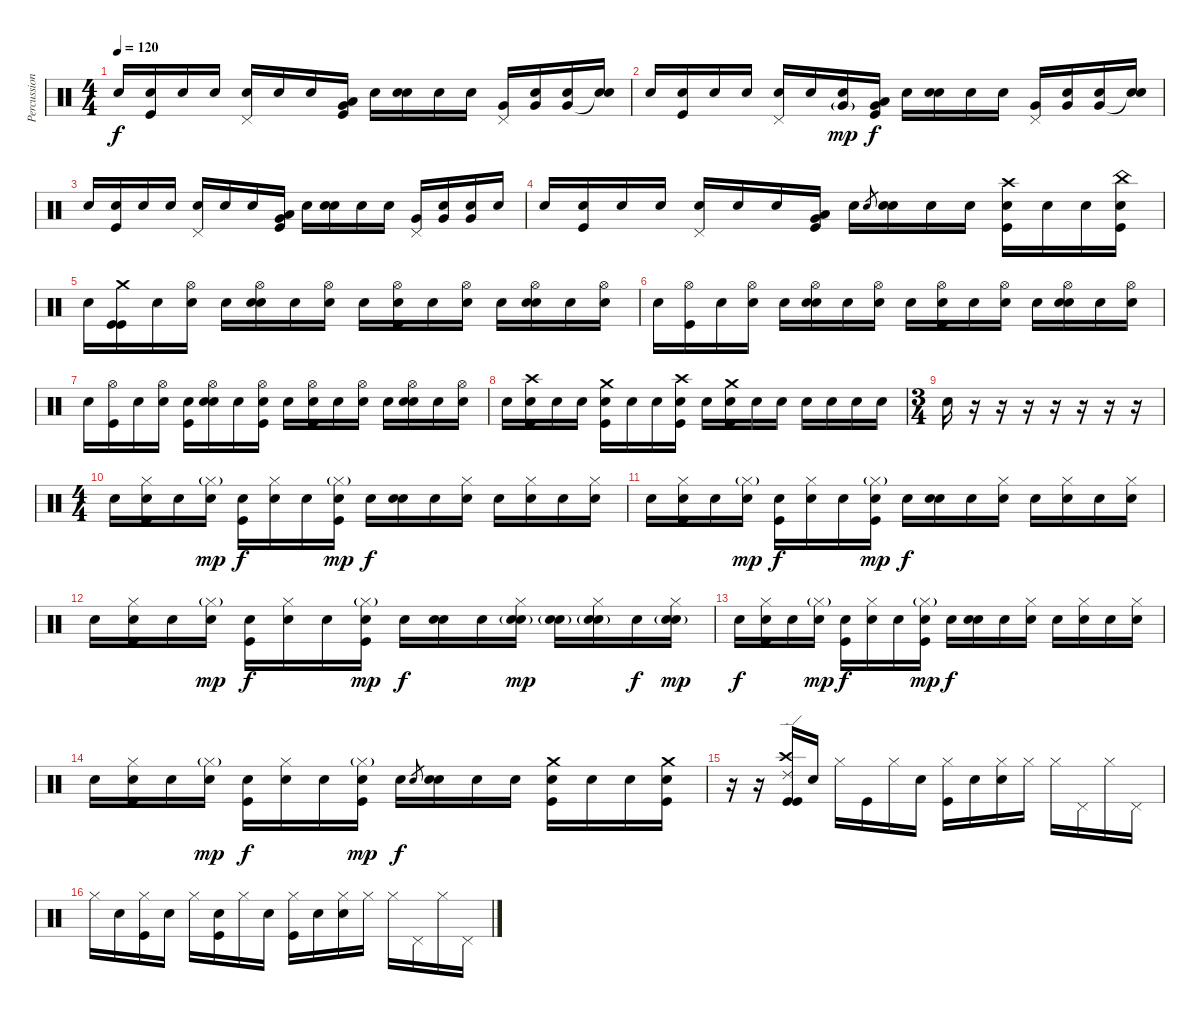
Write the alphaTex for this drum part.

\track ("Percussion" "Percussion") {instrument percussion}
\staff {score}
\articulation defaults
\ts (4 4)
\tempo 120
\clef neutral
\ks c "Snare (hit)"{x}.16{dy f}
("Snare (hit)"{x} "Kick (hit)").16 "Snare (hit)"{x}.16 "Snare (hit)"{x}.16 ("Pedal Hi-Hat (hit)" "Snare (hit) 2").16 "Snare (hit)"{x}.16 "Snare (hit)"{x}.16 ("Low Tom (hit)" "Very Low Tom (hit)" "Kick (hit)").16 "Snare (hit)"{x}.16 ("Snare (hit)"{x} "Snare (hit) 2").16 "Snare (hit)"{x}.16 "Snare (hit)"{x}.16 ("Pedal Hi-Hat (hit)" "Very Low Tom (hit)").16 ("Snare (hit)"{x} "Very Low Tom (hit)").16 ("Snare (hit)"{x} "Very Low Tom (hit)").16 ("Snare (hit)"{x} "Snare (hit)"{t}).16 |
"Snare (hit)"{x}.16 ("Snare (hit)"{x} "Kick (hit)").16 "Snare (hit)"{x}.16 "Snare (hit)"{x}.16 ("Pedal Hi-Hat (hit)" "Snare (hit) 2").16 "Snare (hit)"{x}.16 ("Snare (hit)"{x} "Very Low Tom (hit)"{g}).16{dy mp} ("Low Tom (hit)" "Very Low Tom (hit)" "Kick (hit)").16{dy f} "Snare (hit)"{x}.16 ("Snare (hit)"{x} "Snare (hit) 2").16 "Snare (hit)"{x}.16 "Snare (hit)"{x}.16 ("Pedal Hi-Hat (hit)" "Very Low Tom (hit)").16 ("Snare (hit)"{x} "Very Low Tom (hit)").16 ("Snare (hit)"{x} "Very Low Tom (hit)").16 ("Snare (hit)"{x} "Snare (hit)"{t}).16 |
"Snare (hit)"{x}.16 ("Snare (hit)"{x} "Kick (hit)").16 "Snare (hit)"{x}.16 "Snare (hit)"{x}.16 ("Pedal Hi-Hat (hit)" "Snare (hit) 2").16 "Snare (hit)"{x}.16 "Snare (hit)"{x}.16 ("Low Tom (hit)" "Very Low Tom (hit)" "Kick (hit)").16 "Snare (hit)"{x}.16 ("Snare (hit)"{x} "Snare (hit) 2").16 "Snare (hit)"{x}.16 "Snare (hit)"{x}.16 ("Pedal Hi-Hat (hit)" "Very Low Tom (hit)").16 ("Snare (hit)"{x} "Very Low Tom (hit)").16 ("Snare (hit)"{x} "Very Low Tom (hit)").16 "Snare (hit)"{x}.16 |
"Snare (hit)"{x}.16 ("Snare (hit)"{x} "Kick (hit)").16 "Snare (hit)"{x}.16 "Snare (hit)"{x}.16 ("Pedal Hi-Hat (hit)" "Snare (hit) 2").16 "Snare (hit)"{x}.16 "Snare (hit)"{x}.16 ("Low Tom (hit)" "Very Low Tom (hit)" "Kick (hit)").16 "Snare (hit)"{x}.16 "Snare (hit) 2".8{gr} ("Snare (hit) 2" "Snare (hit) 2").16 "Snare (hit)"{x}.16 "Snare (hit)"{x}.16 ("Crash high (hit)" "Snare (hit) 2" "Kick (hit)").16 "Snare (hit)"{x}.16 "Snare (hit)"{x}.16 ("China (hit)" "Snare (hit) 2" "Kick (hit)").16 |
"Snare (hit)"{x}.16 ("Crash medium (hit)" "Kick (hit)" "Kick (hit)").16 "Snare (hit)"{x}.16 ("Snare (hit)"{x} "Hi-Hat (open)").16 "Snare (hit)"{x}.16 ("Snare (hit)"{x} "Hi-Hat (open)" "Snare (hit) 2").16 "Snare (hit)"{x}.16 ("Snare (hit)"{x} "Hi-Hat (open)").16 "Snare (hit)"{x}.16 ("Snare (hit)"{x} "Hi-Hat (open)" "Kick (hit)").16 "Snare (hit)"{x}.16 ("Snare (hit)"{x} "Hi-Hat (open)").16 "Snare (hit)"{x}.16 ("Snare (hit)"{x} "Hi-Hat (open)" "Snare (hit) 2").16 "Snare (hit)"{x}.16 ("Snare (hit)"{x} "Hi-Hat (open)").16 |
"Snare (hit)"{x}.16 ("Hi-Hat (open)" "Kick (hit)").16 "Snare (hit)"{x}.16 ("Snare (hit)"{x} "Hi-Hat (open)").16 "Snare (hit)"{x}.16 ("Snare (hit)"{x} "Hi-Hat (open)" "Snare (hit) 2").16 "Snare (hit)"{x}.16 ("Snare (hit)"{x} "Hi-Hat (open)").16 "Snare (hit)"{x}.16 ("Snare (hit)"{x} "Hi-Hat (open)" "Kick (hit)").16 "Snare (hit)"{x}.16 ("Snare (hit)"{x} "Hi-Hat (open)").16 "Snare (hit)"{x}.16 ("Snare (hit)"{x} "Hi-Hat (open)" "Snare (hit) 2").16 "Snare (hit)"{x}.16 ("Snare (hit)"{x} "Hi-Hat (open)").16 |
"Snare (hit)"{x}.16 ("Hi-Hat (open)" "Kick (hit)").16 "Snare (hit)"{x}.16 ("Snare (hit)"{x} "Hi-Hat (open)").16 ("Snare (hit)"{x} "Kick (hit)").16 ("Snare (hit)"{x} "Hi-Hat (open)" "Snare (hit) 2").16 "Snare (hit)"{x}.16 ("Snare (hit)"{x} "Hi-Hat (open)" "Kick (hit)").16 "Snare (hit)"{x}.16 ("Snare (hit)"{x} "Hi-Hat (open)" "Kick (hit)").16 "Snare (hit)"{x}.16 ("Snare (hit)"{x} "Hi-Hat (open)").16 "Snare (hit)"{x}.16 ("Snare (hit)"{x} "Hi-Hat (open)" "Snare (hit) 2").16 "Snare (hit)"{x}.16 ("Snare (hit)"{x} "Hi-Hat (open)").16 |
"Snare (hit)"{x}.16 ("Snare (hit)"{x} "Crash high (hit)" "Kick (hit)").16 "Snare (hit)"{x}.16 "Snare (hit)"{x}.16 ("Snare (hit)"{x} "Crash medium (hit)" "Kick (hit)").16 "Snare (hit)"{x}.16 "Snare (hit)"{x}.16 ("Snare (hit)"{x} "Crash high (hit)" "Kick (hit)").16 "Snare (hit)"{x}.16 ("Snare (hit)"{x} "Crash medium (hit)" "Kick (hit)").16 "Snare (hit)"{x}.16 "Snare (hit)"{x}.16 "Snare (hit)"{x}.16 "Snare (hit)"{x}.16 "Snare (hit)"{x}.16 "Snare (hit)"{x}.16 |
\ts (3 4)
"Snare (hit)"{x}.16 r.16 r.16 r.16 r.16 r.16 r.16 r.16 |
\ts (4 4)
"Snare (hit)"{x}.16 ("Snare (hit)"{x} "Hi-Hat (closed)" "Kick (hit)").16 "Snare (hit)"{x}.16 ("Snare (hit)"{x} "Hi-Hat (closed)"{g}).16{dy mp} ("Snare (hit)"{x} "Kick (hit)").16{dy f} ("Snare (hit)"{x} "Hi-Hat (closed)").16 "Snare (hit)"{x}.16 ("Snare (hit)"{x} "Hi-Hat (closed)"{g} "Kick (hit)").16{dy mp} "Snare (hit)"{x}.16{dy f} ("Snare (hit)"{x} "Snare (hit) 2").16 "Snare (hit)"{x}.16 ("Snare (hit)"{x} "Hi-Hat (closed)").16 "Snare (hit)"{x}.16 ("Snare (hit)"{x} "Hi-Hat (closed)").16 "Snare (hit)"{x}.16 ("Snare (hit)"{x} "Hi-Hat (closed)").16 |
"Snare (hit)"{x}.16 ("Snare (hit)"{x} "Hi-Hat (closed)" "Kick (hit)").16 "Snare (hit)"{x}.16 ("Snare (hit)"{x} "Hi-Hat (closed)"{g}).16{dy mp} ("Snare (hit)"{x} "Kick (hit)").16{dy f} ("Snare (hit)"{x} "Hi-Hat (closed)").16 "Snare (hit)"{x}.16 ("Snare (hit)"{x} "Hi-Hat (closed)"{g} "Kick (hit)").16{dy mp} "Snare (hit)"{x}.16{dy f} ("Snare (hit)"{x} "Snare (hit) 2").16 "Snare (hit)"{x}.16 ("Snare (hit)"{x} "Hi-Hat (closed)").16 "Snare (hit)"{x}.16 ("Snare (hit)"{x} "Hi-Hat (closed)").16 "Snare (hit)"{x}.16 ("Snare (hit)"{x} "Hi-Hat (closed)").16 |
"Snare (hit)"{x}.16 ("Snare (hit)"{x} "Hi-Hat (closed)" "Kick (hit)").16 "Snare (hit)"{x}.16 ("Snare (hit)"{x} "Hi-Hat (closed)"{g}).16{dy mp} ("Snare (hit)"{x} "Kick (hit)").16{dy f} ("Snare (hit)"{x} "Hi-Hat (closed)").16 "Snare (hit)"{x}.16 ("Snare (hit)"{x} "Hi-Hat (closed)"{g} "Kick (hit)").16{dy mp} "Snare (hit)"{x}.16{dy f} ("Snare (hit)"{x} "Snare (hit) 2").16 "Snare (hit)"{x}.16 ("Snare (hit)"{x} "Hi-Hat (closed)" "Snare (hit) 2"{g}).16{dy mp} ("Snare (hit)"{x} "Snare (hit) 2"{g}).16 ("Snare (hit)"{x} "Hi-Hat (closed)" "Snare (hit) 2"{g}).16 "Snare (hit)"{x}.16{dy f} ("Snare (hit)"{x} "Hi-Hat (closed)" "Snare (hit) 2"{g}).16{dy mp} |
"Snare (hit)"{x}.16{dy f} ("Snare (hit)"{x} "Hi-Hat (closed)" "Kick (hit)").16 "Snare (hit)"{x}.16 ("Snare (hit)"{x} "Hi-Hat (closed)"{g}).16{dy mp} ("Snare (hit)"{x} "Kick (hit)").16{dy f} ("Snare (hit)"{x} "Hi-Hat (closed)").16 "Snare (hit)"{x}.16 ("Snare (hit)"{x} "Hi-Hat (closed)"{g} "Kick (hit)").16{dy mp} "Snare (hit)"{x}.16{dy f} ("Snare (hit)"{x} "Snare (hit) 2").16 "Snare (hit)"{x}.16 ("Snare (hit)"{x} "Hi-Hat (closed)").16 "Snare (hit)"{x}.16 ("Snare (hit)"{x} "Hi-Hat (closed)").16 "Snare (hit)"{x}.16 ("Snare (hit)"{x} "Hi-Hat (closed)").16 |
"Snare (hit)"{x}.16 ("Snare (hit)"{x} "Hi-Hat (closed)" "Kick (hit)").16 "Snare (hit)"{x}.16 ("Snare (hit)"{x} "Hi-Hat (closed)"{g}).16{dy mp} ("Snare (hit)"{x} "Kick (hit)").16{dy f} ("Snare (hit)"{x} "Hi-Hat (closed)").16 "Snare (hit)"{x}.16 ("Snare (hit)"{x} "Hi-Hat (closed)"{g} "Kick (hit)").16{dy mp} "Snare (hit)"{x}.16{dy f} "Snare (hit) 2".8{gr} ("Snare (hit)"{x} "Snare (hit) 2").16 "Snare (hit)"{x}.16 "Snare (hit)"{x}.16 ("Snare (hit)"{x} "Crash medium (hit)" "Kick (hit)").16 "Snare (hit)"{x}.16 "Snare (hit)"{x}.16 ("Snare (hit)"{x} "Crash medium (hit)" "Kick (hit)").16 |
r.16 r.16 ("Ride (edge) 2" "Crash high (hit)" "Kick (hit)" "Kick (hit)").16 "Snare (hit)"{x}.16 "Hi-Hat (closed)".16 "Kick (hit)".16 "Hi-Hat (closed)".16 "Snare (hit)"{x}.16 ("Hi-Hat (closed)" "Kick (hit)").16 "Snare (hit)"{x}.16 ("Hi-Hat (closed)" "Snare (hit) 2").16 "Hi-Hat (closed)"{x}.16 "Hi-Hat (closed)".16 "Pedal Hi-Hat (hit)"{x}.16 "Hi-Hat (closed)".16 "Pedal Hi-Hat (hit)"{x}.16 |
"Hi-Hat (closed)".16 "Snare (hit)"{x}.16 ("Hi-Hat (closed)" "Kick (hit)").16 "Snare (hit)"{x}.16 "Hi-Hat (closed)".16 ("Snare (hit)"{x} "Kick (hit)").16 "Hi-Hat (closed)".16 "Snare (hit)"{x}.16 ("Hi-Hat (closed)" "Kick (hit)").16 "Snare (hit)"{x}.16 ("Hi-Hat (closed)" "Snare (hit) 2").16 "Hi-Hat (closed)"{x}.16 "Hi-Hat (closed)".16 "Pedal Hi-Hat (hit)"{x}.16 "Hi-Hat (closed)".16 "Pedal Hi-Hat (hit)"{x}.16
